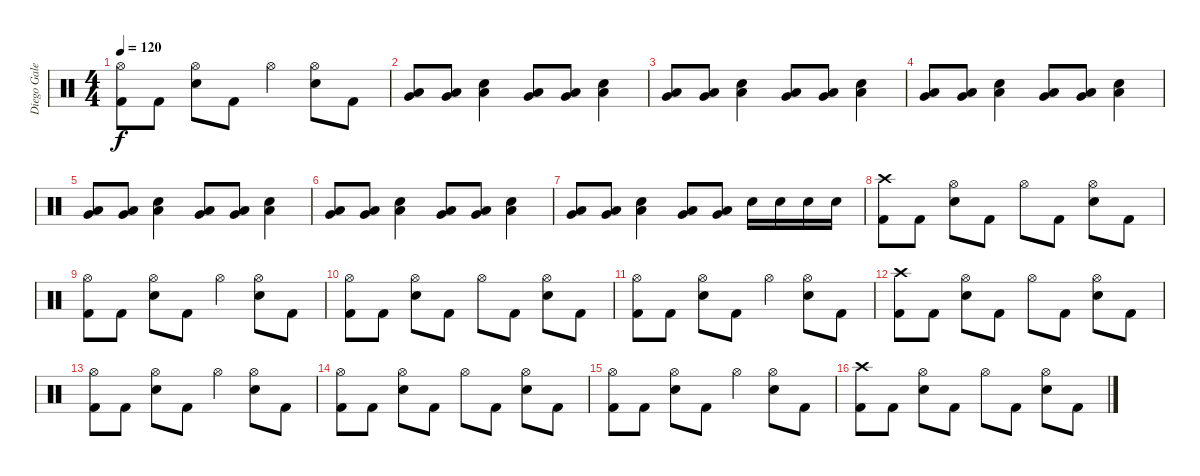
\track ("Diego Galeri (batteria)" "Diego Gale") {instrument percussion}
\staff {score}
\articulation defaults
\ts (4 4)
\tempo 120
\clef neutral
\ks c
("Hi-Hat (open)" "Kick (hit) 2").8{dy f} "Kick (hit) 2".8 ("Hi-Hat (open)" "Electric Snare (hit)").8 "Kick (hit) 2".8 "Hi-Hat (open)".4 ("Hi-Hat (open)" "Electric Snare (hit)").8 "Kick (hit) 2".8 |
("Low Tom (hit)" "Very Low Tom (hit)").8 ("Low Tom (hit)" "Very Low Tom (hit)").8 ("Low Tom (hit)" "Electric Snare (hit)").4 ("Low Tom (hit)" "Very Low Tom (hit)").8 ("Low Tom (hit)" "Very Low Tom (hit)").8 ("Low Tom (hit)" "Electric Snare (hit)").4 |
("Low Tom (hit)" "Very Low Tom (hit)").8 ("Low Tom (hit)" "Very Low Tom (hit)").8 ("Low Tom (hit)" "Electric Snare (hit)").4 ("Low Tom (hit)" "Very Low Tom (hit)").8 ("Low Tom (hit)" "Very Low Tom (hit)").8 ("Low Tom (hit)" "Electric Snare (hit)").4 |
("Low Tom (hit)" "Very Low Tom (hit)").8 ("Low Tom (hit)" "Very Low Tom (hit)").8 ("Low Tom (hit)" "Electric Snare (hit)").4 ("Low Tom (hit)" "Very Low Tom (hit)").8 ("Low Tom (hit)" "Very Low Tom (hit)").8 ("Low Tom (hit)" "Electric Snare (hit)").4 |
("Low Tom (hit)" "Very Low Tom (hit)").8 ("Low Tom (hit)" "Very Low Tom (hit)").8 ("Low Tom (hit)" "Electric Snare (hit)").4 ("Low Tom (hit)" "Very Low Tom (hit)").8 ("Low Tom (hit)" "Very Low Tom (hit)").8 ("Low Tom (hit)" "Electric Snare (hit)").4 |
("Low Tom (hit)" "Very Low Tom (hit)").8 ("Low Tom (hit)" "Very Low Tom (hit)").8 ("Low Tom (hit)" "Electric Snare (hit)").4 ("Low Tom (hit)" "Very Low Tom (hit)").8 ("Low Tom (hit)" "Very Low Tom (hit)").8 ("Low Tom (hit)" "Electric Snare (hit)").4 |
("Low Tom (hit)" "Very Low Tom (hit)").8 ("Low Tom (hit)" "Very Low Tom (hit)").8 ("Low Tom (hit)" "Electric Snare (hit)").4 ("Low Tom (hit)" "Very Low Tom (hit)").8 ("Low Tom (hit)" "Very Low Tom (hit)").8 "Electric Snare (hit)".16 "Electric Snare (hit)".16 "Electric Snare (hit)".16 "Electric Snare (hit)".16 |
("Kick (hit) 2" "Crash high (hit)").8 "Kick (hit) 2".8 ("Hi-Hat (open)" "Electric Snare (hit)").8 "Kick (hit) 2".8 "Hi-Hat (open)".8 "Kick (hit) 2".8 ("Hi-Hat (open)" "Electric Snare (hit)").8 "Kick (hit) 2".8 |
("Hi-Hat (open)" "Kick (hit) 2").8 "Kick (hit) 2".8 ("Hi-Hat (open)" "Electric Snare (hit)").8 "Kick (hit) 2".8 "Hi-Hat (open)".4 ("Hi-Hat (open)" "Electric Snare (hit)").8 "Kick (hit) 2".8 |
("Hi-Hat (open)" "Kick (hit) 2").8 "Kick (hit) 2".8 ("Hi-Hat (open)" "Electric Snare (hit)").8 "Kick (hit) 2".8 "Hi-Hat (open)".8 "Kick (hit) 2".8 ("Hi-Hat (open)" "Electric Snare (hit)").8 "Kick (hit) 2".8 |
("Hi-Hat (open)" "Kick (hit) 2").8 "Kick (hit) 2".8 ("Hi-Hat (open)" "Electric Snare (hit)").8 "Kick (hit) 2".8 "Hi-Hat (open)".4 ("Hi-Hat (open)" "Electric Snare (hit)").8 "Kick (hit) 2".8 |
("Kick (hit) 2" "Crash high (hit)").8 "Kick (hit) 2".8 ("Hi-Hat (open)" "Electric Snare (hit)").8 "Kick (hit) 2".8 "Hi-Hat (open)".8 "Kick (hit) 2".8 ("Hi-Hat (open)" "Electric Snare (hit)").8 "Kick (hit) 2".8 |
("Hi-Hat (open)" "Kick (hit) 2").8 "Kick (hit) 2".8 ("Hi-Hat (open)" "Electric Snare (hit)").8 "Kick (hit) 2".8 "Hi-Hat (open)".4 ("Hi-Hat (open)" "Electric Snare (hit)").8 "Kick (hit) 2".8 |
("Hi-Hat (open)" "Kick (hit) 2").8 "Kick (hit) 2".8 ("Hi-Hat (open)" "Electric Snare (hit)").8 "Kick (hit) 2".8 "Hi-Hat (open)".8 "Kick (hit) 2".8 ("Hi-Hat (open)" "Electric Snare (hit)").8 "Kick (hit) 2".8 |
("Hi-Hat (open)" "Kick (hit) 2").8 "Kick (hit) 2".8 ("Hi-Hat (open)" "Electric Snare (hit)").8 "Kick (hit) 2".8 "Hi-Hat (open)".4 ("Hi-Hat (open)" "Electric Snare (hit)").8 "Kick (hit) 2".8 |
("Kick (hit) 2" "Crash high (hit)").8 "Kick (hit) 2".8 ("Hi-Hat (open)" "Electric Snare (hit)").8 "Kick (hit) 2".8 "Hi-Hat (open)".8 "Kick (hit) 2".8 ("Hi-Hat (open)" "Electric Snare (hit)").8 "Kick (hit) 2".8
